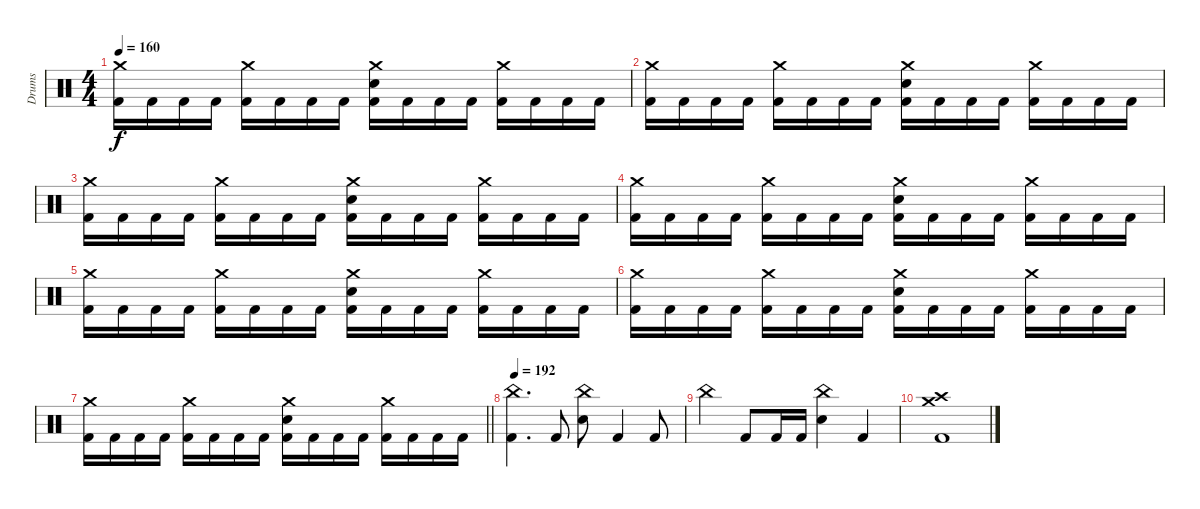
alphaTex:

\track ("Drums" "Drums") {instrument percussion}
\staff {score}
\articulation defaults
\ts (4 4)
\tempo 160
\clef neutral
\ks c
("Crash medium (hit)" "Kick (hit) 2").16{dy f} "Kick (hit) 2".16 "Kick (hit) 2".16 "Kick (hit) 2".16 ("Crash medium (hit)" "Kick (hit) 2").16 "Kick (hit) 2".16 "Kick (hit) 2".16 "Kick (hit) 2".16 ("Crash medium (hit)" "Snare (hit) 2" "Kick (hit) 2").16 "Kick (hit) 2".16 "Kick (hit) 2".16 "Kick (hit) 2".16 ("Crash medium (hit)" "Kick (hit) 2").16 "Kick (hit) 2".16 "Kick (hit) 2".16 "Kick (hit) 2".16 |
("Crash medium (hit)" "Kick (hit) 2").16 "Kick (hit) 2".16 "Kick (hit) 2".16 "Kick (hit) 2".16 ("Crash medium (hit)" "Kick (hit) 2").16 "Kick (hit) 2".16 "Kick (hit) 2".16 "Kick (hit) 2".16 ("Crash medium (hit)" "Snare (hit) 2" "Kick (hit) 2").16 "Kick (hit) 2".16 "Kick (hit) 2".16 "Kick (hit) 2".16 ("Crash medium (hit)" "Kick (hit) 2").16 "Kick (hit) 2".16 "Kick (hit) 2".16 "Kick (hit) 2".16 |
("Crash medium (hit)" "Kick (hit) 2").16 "Kick (hit) 2".16 "Kick (hit) 2".16 "Kick (hit) 2".16 ("Crash medium (hit)" "Kick (hit) 2").16 "Kick (hit) 2".16 "Kick (hit) 2".16 "Kick (hit) 2".16 ("Crash medium (hit)" "Snare (hit) 2" "Kick (hit) 2").16 "Kick (hit) 2".16 "Kick (hit) 2".16 "Kick (hit) 2".16 ("Crash medium (hit)" "Kick (hit) 2").16 "Kick (hit) 2".16 "Kick (hit) 2".16 "Kick (hit) 2".16 |
("Crash medium (hit)" "Kick (hit) 2").16 "Kick (hit) 2".16 "Kick (hit) 2".16 "Kick (hit) 2".16 ("Crash medium (hit)" "Kick (hit) 2").16 "Kick (hit) 2".16 "Kick (hit) 2".16 "Kick (hit) 2".16 ("Crash medium (hit)" "Snare (hit) 2" "Kick (hit) 2").16 "Kick (hit) 2".16 "Kick (hit) 2".16 "Kick (hit) 2".16 ("Crash medium (hit)" "Kick (hit) 2").16 "Kick (hit) 2".16 "Kick (hit) 2".16 "Kick (hit) 2".16 |
("Crash medium (hit)" "Kick (hit) 2").16 "Kick (hit) 2".16 "Kick (hit) 2".16 "Kick (hit) 2".16 ("Crash medium (hit)" "Kick (hit) 2").16 "Kick (hit) 2".16 "Kick (hit) 2".16 "Kick (hit) 2".16 ("Crash medium (hit)" "Snare (hit) 2" "Kick (hit) 2").16 "Kick (hit) 2".16 "Kick (hit) 2".16 "Kick (hit) 2".16 ("Crash medium (hit)" "Kick (hit) 2").16 "Kick (hit) 2".16 "Kick (hit) 2".16 "Kick (hit) 2".16 |
("Crash medium (hit)" "Kick (hit) 2").16 "Kick (hit) 2".16 "Kick (hit) 2".16 "Kick (hit) 2".16 ("Crash medium (hit)" "Kick (hit) 2").16 "Kick (hit) 2".16 "Kick (hit) 2".16 "Kick (hit) 2".16 ("Crash medium (hit)" "Snare (hit) 2" "Kick (hit) 2").16 "Kick (hit) 2".16 "Kick (hit) 2".16 "Kick (hit) 2".16 ("Crash medium (hit)" "Kick (hit) 2").16 "Kick (hit) 2".16 "Kick (hit) 2".16 "Kick (hit) 2".16 |
\barLineRight lightlight
("Crash medium (hit)" "Kick (hit) 2").16 "Kick (hit) 2".16 "Kick (hit) 2".16 "Kick (hit) 2".16 ("Crash medium (hit)" "Kick (hit) 2").16 "Kick (hit) 2".16 "Kick (hit) 2".16 "Kick (hit) 2".16 ("Crash medium (hit)" "Snare (hit) 2" "Kick (hit) 2").16 "Kick (hit) 2".16 "Kick (hit) 2".16 "Kick (hit) 2".16 ("Crash medium (hit)" "Kick (hit) 2").16 "Kick (hit) 2".16 "Kick (hit) 2".16 "Kick (hit) 2".16 |
\section ("" "")
\tempo 192
("China (hit)" "Kick (hit) 2").4{d} "Kick (hit) 2".8 ("China (hit)" "Snare (hit) 2").8 "Kick (hit) 2".4 "Kick (hit) 2".8 |
"China (hit)".4 "Kick (hit) 2".8 "Kick (hit) 2".16 "Kick (hit) 2".16 ("China (hit)" "Snare (hit) 2").4 "Kick (hit) 2".4 |
("Crash medium (hit)" "Crash high (hit)" "Kick (hit) 2").1
